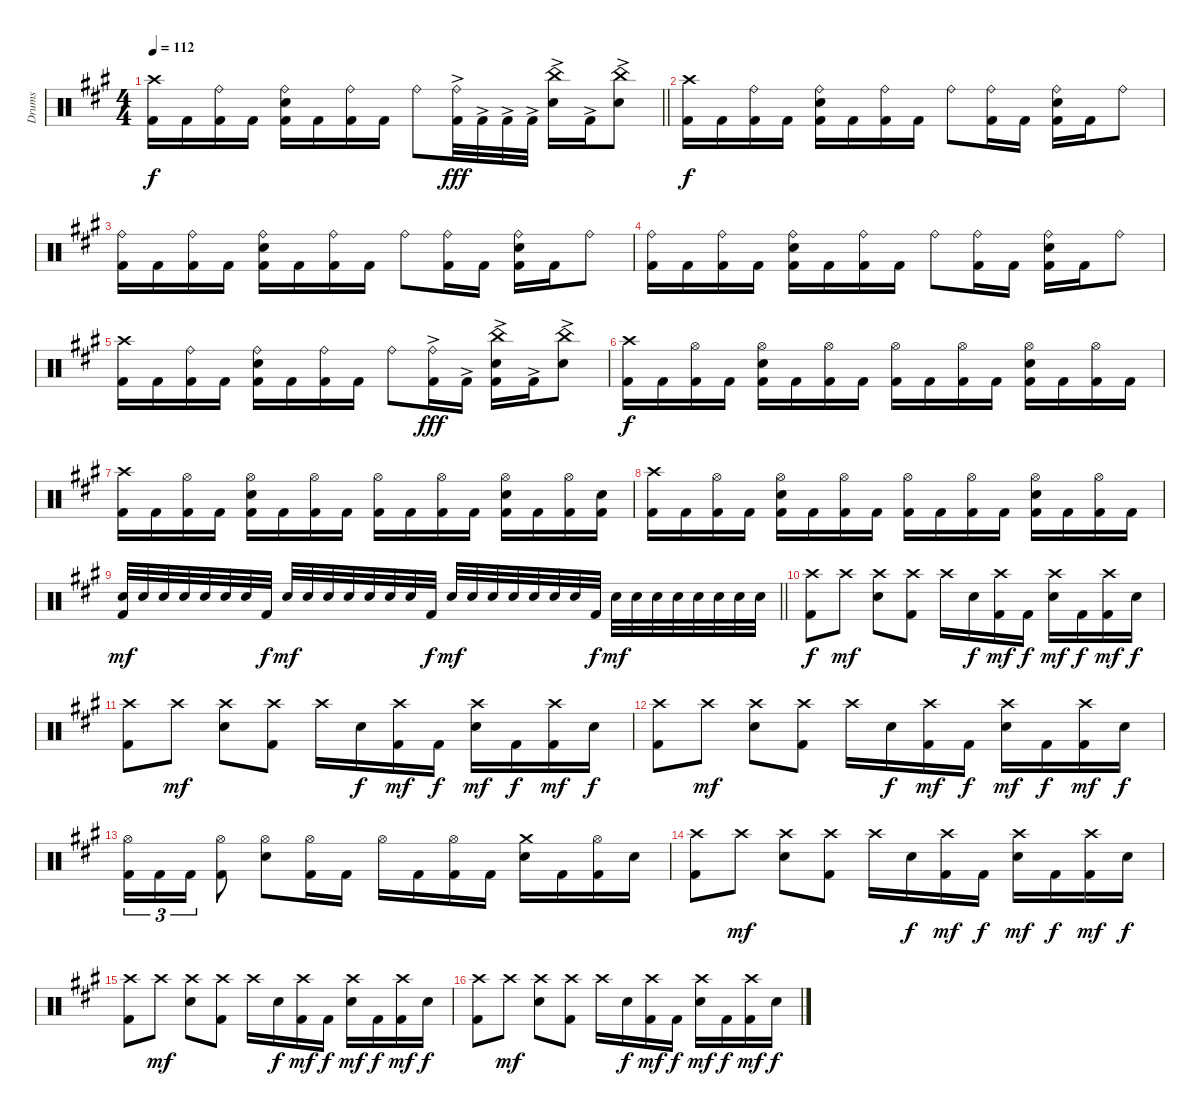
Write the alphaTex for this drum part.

\track ("Drums" "Drums") {instrument percussion}
\staff {score}
\articulation defaults
\ts (4 4)
\tempo 112
\clef neutral
\barLineRight lightlight
\ks f#minor
("Crash high (hit)" "Kick (hit) 2").16{dy f} "Kick (hit) 2".16 ("Ride (bell)" "Kick (hit) 2").16 "Kick (hit) 2".16 ("Ride (bell)" "Snare (hit) 2" "Kick (hit) 2").16 "Kick (hit) 2".16 ("Ride (bell)" "Kick (hit) 2").16 "Kick (hit) 2".16 "Ride (bell)".8 ("Ride (bell)" "Kick (hit) 2"{ac}).32{dy fff} "Kick (hit) 2"{ac}.32 "Kick (hit) 2"{ac}.32 "Kick (hit) 2"{ac}.32 ("China (hit)"{ac} "Snare (hit) 2").16 "Kick (hit) 2"{ac}.16 ("China (hit)"{ac} "Snare (hit) 2").8 |
("Crash high (hit)" "Kick (hit) 2").16{dy f} "Kick (hit) 2".16 ("Ride (bell)" "Kick (hit) 2").16 "Kick (hit) 2".16 ("Ride (bell)" "Snare (hit) 2" "Kick (hit) 2").16 "Kick (hit) 2".16 ("Ride (bell)" "Kick (hit) 2").16 "Kick (hit) 2".16 "Ride (bell)".8 ("Ride (bell)" "Kick (hit) 2").16 "Kick (hit) 2".16 ("Ride (bell)" "Snare (hit) 2" "Kick (hit) 2").16 "Kick (hit) 2".16 "Ride (bell)".8 |
("Ride (bell)" "Kick (hit) 2").16 "Kick (hit) 2".16 ("Ride (bell)" "Kick (hit) 2").16 "Kick (hit) 2".16 ("Ride (bell)" "Snare (hit) 2" "Kick (hit) 2").16 "Kick (hit) 2".16 ("Ride (bell)" "Kick (hit) 2").16 "Kick (hit) 2".16 "Ride (bell)".8 ("Ride (bell)" "Kick (hit) 2").16 "Kick (hit) 2".16 ("Ride (bell)" "Snare (hit) 2" "Kick (hit) 2").16 "Kick (hit) 2".16 "Ride (bell)".8 |
("Ride (bell)" "Kick (hit) 2").16 "Kick (hit) 2".16 ("Ride (bell)" "Kick (hit) 2").16 "Kick (hit) 2".16 ("Ride (bell)" "Snare (hit) 2" "Kick (hit) 2").16 "Kick (hit) 2".16 ("Ride (bell)" "Kick (hit) 2").16 "Kick (hit) 2".16 "Ride (bell)".8 ("Ride (bell)" "Kick (hit) 2").16 "Kick (hit) 2".16 ("Ride (bell)" "Snare (hit) 2" "Kick (hit) 2").16 "Kick (hit) 2".16 "Ride (bell)".8 |
("Crash high (hit)" "Kick (hit) 2").16 "Kick (hit) 2".16 ("Ride (bell)" "Kick (hit) 2").16 "Kick (hit) 2".16 ("Ride (bell)" "Snare (hit) 2" "Kick (hit) 2").16 "Kick (hit) 2".16 ("Ride (bell)" "Kick (hit) 2").16 "Kick (hit) 2".16 "Ride (bell)".8 ("Ride (bell)" "Kick (hit) 2"{ac}).16{dy fff} "Kick (hit) 2"{ac}.16 ("China (hit)"{ac} "Snare (hit) 2" "Kick (hit) 2").16 "Kick (hit) 2"{ac}.16 ("China (hit)"{ac} "Snare (hit) 2").8 |
("Crash high (hit)" "Kick (hit) 2").16{dy f} "Kick (hit) 2".16 ("Hi-Hat (open)" "Kick (hit) 2").16 "Kick (hit) 2".16 ("Hi-Hat (open)" "Snare (hit) 2" "Kick (hit) 2").16 "Kick (hit) 2".16 ("Hi-Hat (open)" "Kick (hit) 2").16 "Kick (hit) 2".16 ("Hi-Hat (open)" "Kick (hit) 2").16 "Kick (hit) 2".16 ("Hi-Hat (open)" "Kick (hit) 2").16 "Kick (hit) 2".16 ("Hi-Hat (open)" "Snare (hit) 2" "Kick (hit) 2").16 "Kick (hit) 2".16 ("Hi-Hat (open)" "Kick (hit) 2").16 "Kick (hit) 2".16 |
("Crash high (hit)" "Kick (hit) 2").16 "Kick (hit) 2".16 ("Hi-Hat (open)" "Kick (hit) 2").16 "Kick (hit) 2".16 ("Hi-Hat (open)" "Snare (hit) 2" "Kick (hit) 2").16 "Kick (hit) 2".16 ("Hi-Hat (open)" "Kick (hit) 2").16 "Kick (hit) 2".16 ("Hi-Hat (open)" "Kick (hit) 2").16 "Kick (hit) 2".16 ("Hi-Hat (open)" "Kick (hit) 2").16 "Kick (hit) 2".16 ("Hi-Hat (open)" "Snare (hit) 2" "Kick (hit) 2").16 "Kick (hit) 2".16 ("Hi-Hat (open)" "Kick (hit) 2").16 ("Snare (hit) 2" "Kick (hit) 2").16 |
("Crash high (hit)" "Kick (hit) 2").16 "Kick (hit) 2".16 ("Hi-Hat (open)" "Kick (hit) 2").16 "Kick (hit) 2".16 ("Hi-Hat (open)" "Snare (hit) 2" "Kick (hit) 2").16 "Kick (hit) 2".16 ("Hi-Hat (open)" "Kick (hit) 2").16 "Kick (hit) 2".16 ("Hi-Hat (open)" "Kick (hit) 2").16 "Kick (hit) 2".16 ("Hi-Hat (open)" "Kick (hit) 2").16 "Kick (hit) 2".16 ("Hi-Hat (open)" "Snare (hit) 2" "Kick (hit) 2").16 "Kick (hit) 2".16 ("Hi-Hat (open)" "Kick (hit) 2").16 "Kick (hit) 2".16 |
\barLineRight lightlight
("Snare (hit) 2" "Kick (hit) 2").32{dy mf} "Snare (hit) 2".32 "Snare (hit) 2".32 "Snare (hit) 2".32 "Snare (hit) 2".32 "Snare (hit) 2".32 "Snare (hit) 2".32 "Kick (hit) 2".32{dy f} "Snare (hit) 2".32{dy mf} "Snare (hit) 2".32 "Snare (hit) 2".32 "Snare (hit) 2".32 "Snare (hit) 2".32 "Snare (hit) 2".32 "Snare (hit) 2".32 "Kick (hit) 2".32{dy f} "Snare (hit) 2".32{dy mf} "Snare (hit) 2".32 "Snare (hit) 2".32 "Snare (hit) 2".32 "Snare (hit) 2".32 "Snare (hit) 2".32 "Snare (hit) 2".32 "Kick (hit) 2".32{dy f} "Snare (hit) 2".32{dy mf} "Snare (hit) 2".32 "Snare (hit) 2".32 "Snare (hit) 2".32 "Snare (hit) 2".32 "Snare (hit) 2".32 "Snare (hit) 2".32 "Snare (hit) 2".32 |
("Crash high (hit)" "Kick (hit) 2").8{dy f} "Crash high (hit)".8{dy mf} ("Crash high (hit)" "Snare (hit) 2").8 ("Crash high (hit)" "Kick (hit) 2").8 "Crash high (hit)".16 "Snare (hit) 2".16{dy f} ("Crash high (hit)" "Kick (hit) 2").16{dy mf} "Kick (hit) 2".16{dy f} ("Crash high (hit)" "Snare (hit) 2").16{dy mf} "Kick (hit) 2".16{dy f} ("Crash high (hit)" "Kick (hit) 2").16{dy mf} "Snare (hit) 2".16{dy f} |
("Crash high (hit)" "Kick (hit) 2").8 "Crash high (hit)".8{dy mf} ("Crash high (hit)" "Snare (hit) 2").8 ("Crash high (hit)" "Kick (hit) 2").8 "Crash high (hit)".16 "Snare (hit) 2".16{dy f} ("Crash high (hit)" "Kick (hit) 2").16{dy mf} "Kick (hit) 2".16{dy f} ("Crash high (hit)" "Snare (hit) 2").16{dy mf} "Kick (hit) 2".16{dy f} ("Crash high (hit)" "Kick (hit) 2").16{dy mf} "Snare (hit) 2".16{dy f} |
("Crash high (hit)" "Kick (hit) 2").8 "Crash high (hit)".8{dy mf} ("Crash high (hit)" "Snare (hit) 2").8 ("Crash high (hit)" "Kick (hit) 2").8 "Crash high (hit)".16 "Snare (hit) 2".16{dy f} ("Crash high (hit)" "Kick (hit) 2").16{dy mf} "Kick (hit) 2".16{dy f} ("Crash high (hit)" "Snare (hit) 2").16{dy mf} "Kick (hit) 2".16{dy f} ("Crash high (hit)" "Kick (hit) 2").16{dy mf} "Snare (hit) 2".16{dy f} |
("Hi-Hat (open)" "Kick (hit) 2").16{tu (3 2)} "Kick (hit) 2".16{tu (3 2)} "Kick (hit) 2".16{tu (3 2)} ("Hi-Hat (open)" "Kick (hit) 2").8 ("Hi-Hat (open)" "Snare (hit) 2").8 ("Hi-Hat (open)" "Kick (hit) 2").16 "Kick (hit) 2".16 "Hi-Hat (open)".16 "Kick (hit) 2".16 ("Hi-Hat (open)" "Kick (hit) 2").16 "Kick (hit) 2".16 ("Crash medium (hit)" "Snare (hit) 2").16 "Kick (hit) 2".16 ("Hi-Hat (open)" "Kick (hit) 2").16 "Snare (hit) 2".16 |
("Crash high (hit)" "Kick (hit) 2").8 "Crash high (hit)".8{dy mf} ("Crash high (hit)" "Snare (hit) 2").8 ("Crash high (hit)" "Kick (hit) 2").8 "Crash high (hit)".16 "Snare (hit) 2".16{dy f} ("Crash high (hit)" "Kick (hit) 2").16{dy mf} "Kick (hit) 2".16{dy f} ("Crash high (hit)" "Snare (hit) 2").16{dy mf} "Kick (hit) 2".16{dy f} ("Crash high (hit)" "Kick (hit) 2").16{dy mf} "Snare (hit) 2".16{dy f} |
("Crash high (hit)" "Kick (hit) 2").8 "Crash high (hit)".8{dy mf} ("Crash high (hit)" "Snare (hit) 2").8 ("Crash high (hit)" "Kick (hit) 2").8 "Crash high (hit)".16 "Snare (hit) 2".16{dy f} ("Crash high (hit)" "Kick (hit) 2").16{dy mf} "Kick (hit) 2".16{dy f} ("Crash high (hit)" "Snare (hit) 2").16{dy mf} "Kick (hit) 2".16{dy f} ("Crash high (hit)" "Kick (hit) 2").16{dy mf} "Snare (hit) 2".16{dy f} |
("Crash high (hit)" "Kick (hit) 2").8 "Crash high (hit)".8{dy mf} ("Crash high (hit)" "Snare (hit) 2").8 ("Crash high (hit)" "Kick (hit) 2").8 "Crash high (hit)".16 "Snare (hit) 2".16{dy f} ("Crash high (hit)" "Kick (hit) 2").16{dy mf} "Kick (hit) 2".16{dy f} ("Crash high (hit)" "Snare (hit) 2").16{dy mf} "Kick (hit) 2".16{dy f} ("Crash high (hit)" "Kick (hit) 2").16{dy mf} "Snare (hit) 2".16{dy f}
